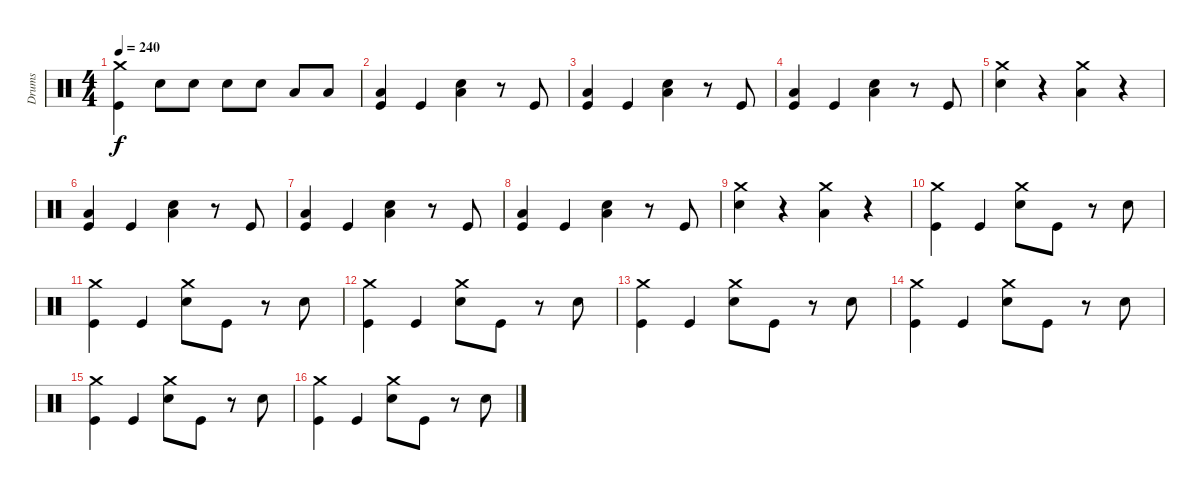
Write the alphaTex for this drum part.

\track ("Drums" "Drums") {instrument percussion}
\staff {score}
\articulation defaults
\ts (4 4)
\tempo 240
\clef neutral
\ks c
("Crash medium (hit)" "Kick (hit)").4{dy f} "Snare (hit) 2".8 "Snare (hit) 2".8 "Snare (hit) 2".8 "Snare (hit) 2".8 "Low Tom (hit)".8 "Low Tom (hit)".8 |
("Low Floor Tom (hit)" "Kick (hit)").4 "Kick (hit)".4 ("Low Floor Tom (hit)" "Snare (hit) 2").4 r.8 "Kick (hit)".8 |
("Low Floor Tom (hit)" "Kick (hit)").4 "Kick (hit)".4 ("Low Floor Tom (hit)" "Snare (hit) 2").4 r.8 "Kick (hit)".8 |
("Low Floor Tom (hit)" "Kick (hit)").4 "Kick (hit)".4 ("Low Floor Tom (hit)" "Snare (hit) 2").4 r.8 "Kick (hit)".8 |
("Crash medium (hit)" "Snare (hit) 2").4 r.4 ("Crash medium (hit)" "Low Tom (hit)").4 r.4 |
("Low Floor Tom (hit)" "Kick (hit)").4 "Kick (hit)".4 ("Low Floor Tom (hit)" "Snare (hit) 2").4 r.8 "Kick (hit)".8 |
("Low Floor Tom (hit)" "Kick (hit)").4 "Kick (hit)".4 ("Low Floor Tom (hit)" "Snare (hit) 2").4 r.8 "Kick (hit)".8 |
("Low Floor Tom (hit)" "Kick (hit)").4 "Kick (hit)".4 ("Low Floor Tom (hit)" "Snare (hit) 2").4 r.8 "Kick (hit)".8 |
("Crash medium (hit)" "Snare (hit) 2").4 r.4 ("Crash medium (hit)" "Low Tom (hit)").4 r.4 |
("Crash medium (hit)" "Kick (hit)").4 "Kick (hit)".4 ("Crash medium (hit)" "Snare (hit) 2").8 "Kick (hit)".8 r.8 "Snare (hit) 2".8 |
("Crash medium (hit)" "Kick (hit)").4 "Kick (hit)".4 ("Crash medium (hit)" "Snare (hit) 2").8 "Kick (hit)".8 r.8 "Snare (hit) 2".8 |
("Crash medium (hit)" "Kick (hit)").4 "Kick (hit)".4 ("Crash medium (hit)" "Snare (hit) 2").8 "Kick (hit)".8 r.8 "Snare (hit) 2".8 |
("Crash medium (hit)" "Kick (hit)").4 "Kick (hit)".4 ("Crash medium (hit)" "Snare (hit) 2").8 "Kick (hit)".8 r.8 "Snare (hit) 2".8 |
("Crash medium (hit)" "Kick (hit)").4 "Kick (hit)".4 ("Crash medium (hit)" "Snare (hit) 2").8 "Kick (hit)".8 r.8 "Snare (hit) 2".8 |
("Crash medium (hit)" "Kick (hit)").4 "Kick (hit)".4 ("Crash medium (hit)" "Snare (hit) 2").8 "Kick (hit)".8 r.8 "Snare (hit) 2".8 |
("Crash medium (hit)" "Kick (hit)").4 "Kick (hit)".4 ("Crash medium (hit)" "Snare (hit) 2").8 "Kick (hit)".8 r.8 "Snare (hit) 2".8
